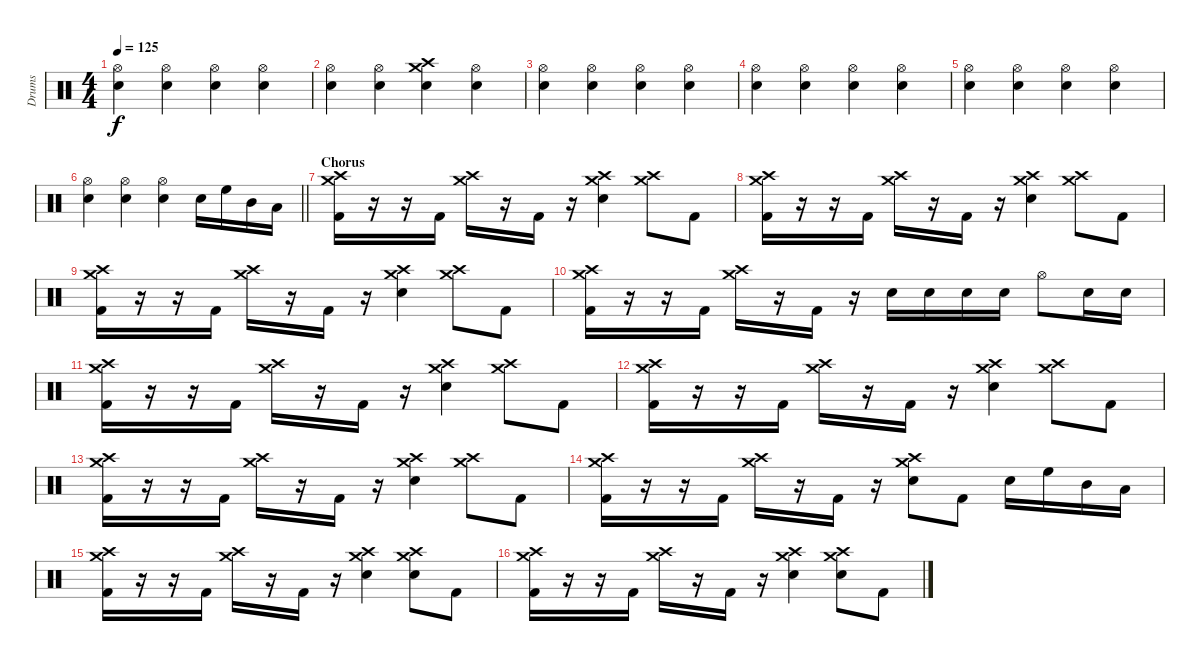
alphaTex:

\track ("Drums" "Drums") {instrument percussion}
\staff {score}
\articulation defaults
\ts (4 4)
\tempo 125
\clef neutral
\ks c
("Hi-Hat (open)" "Snare (hit) 2").4{dy f} ("Hi-Hat (open)" "Snare (hit) 2").4 ("Hi-Hat (open)" "Snare (hit) 2").4 ("Hi-Hat (open)" "Snare (hit) 2").4 |
("Hi-Hat (open)" "Snare (hit) 2").4 ("Hi-Hat (open)" "Snare (hit) 2").4 ("Crash medium (hit)" "Crash high (hit)" "Snare (hit) 2").4 ("Hi-Hat (open)" "Snare (hit) 2").4 |
("Hi-Hat (open)" "Snare (hit) 2").4 ("Hi-Hat (open)" "Snare (hit) 2").4 ("Hi-Hat (open)" "Snare (hit) 2").4 ("Hi-Hat (open)" "Snare (hit) 2").4 |
("Hi-Hat (open)" "Snare (hit) 2").4 ("Hi-Hat (open)" "Snare (hit) 2").4 ("Hi-Hat (open)" "Snare (hit) 2").4 ("Hi-Hat (open)" "Snare (hit) 2").4 |
("Hi-Hat (open)" "Snare (hit) 2").4 ("Hi-Hat (open)" "Snare (hit) 2").4 ("Hi-Hat (open)" "Snare (hit) 2").4 ("Hi-Hat (open)" "Snare (hit) 2").4 |
\barLineRight lightlight
("Hi-Hat (open)" "Snare (hit) 2").4 ("Hi-Hat (open)" "Snare (hit) 2").4 ("Hi-Hat (open)" "Snare (hit) 2").4 "Snare (hit) 2".16 "High Floor Tom (hit)".16 "Mid Tom (hit)".16 "Low Tom (hit)".16 |
\section ("" "Chorus")
("Crash high (hit)" "Crash medium (hit)" "Kick (hit) 2").16 r.16 r.16 "Kick (hit) 2".16 ("Crash high (hit)" "Crash medium (hit)").16 r.16 "Kick (hit) 2".16 r.16 ("Crash high (hit)" "Crash medium (hit)" "Snare (hit) 2").4 ("Crash high (hit)" "Crash medium (hit)").8 "Kick (hit) 2".8 |
("Crash high (hit)" "Crash medium (hit)" "Kick (hit) 2").16 r.16 r.16 "Kick (hit) 2".16 ("Crash high (hit)" "Crash medium (hit)").16 r.16 "Kick (hit) 2".16 r.16 ("Crash high (hit)" "Crash medium (hit)" "Snare (hit) 2").4 ("Crash high (hit)" "Crash medium (hit)").8 "Kick (hit) 2".8 |
("Crash high (hit)" "Crash medium (hit)" "Kick (hit) 2").16 r.16 r.16 "Kick (hit) 2".16 ("Crash high (hit)" "Crash medium (hit)").16 r.16 "Kick (hit) 2".16 r.16 ("Crash high (hit)" "Crash medium (hit)" "Snare (hit) 2").4 ("Crash high (hit)" "Crash medium (hit)").8 "Kick (hit) 2".8 |
("Crash high (hit)" "Crash medium (hit)" "Kick (hit) 2").16 r.16 r.16 "Kick (hit) 2".16 ("Crash high (hit)" "Crash medium (hit)").16 r.16 "Kick (hit) 2".16 r.16 "Snare (hit) 2".16 "Snare (hit) 2".16 "Snare (hit) 2".16 "Snare (hit) 2".16 "Hi-Hat (open)".8 "Snare (hit) 2".16 "Snare (hit) 2".16 |
("Crash high (hit)" "Crash medium (hit)" "Kick (hit) 2").16 r.16 r.16 "Kick (hit) 2".16 ("Crash high (hit)" "Crash medium (hit)").16 r.16 "Kick (hit) 2".16 r.16 ("Crash high (hit)" "Crash medium (hit)" "Snare (hit) 2").4 ("Crash high (hit)" "Crash medium (hit)").8 "Kick (hit) 2".8 |
("Crash high (hit)" "Crash medium (hit)" "Kick (hit) 2").16 r.16 r.16 "Kick (hit) 2".16 ("Crash high (hit)" "Crash medium (hit)").16 r.16 "Kick (hit) 2".16 r.16 ("Crash high (hit)" "Crash medium (hit)" "Snare (hit) 2").4 ("Crash high (hit)" "Crash medium (hit)").8 "Kick (hit) 2".8 |
("Crash high (hit)" "Crash medium (hit)" "Kick (hit) 2").16 r.16 r.16 "Kick (hit) 2".16 ("Crash high (hit)" "Crash medium (hit)").16 r.16 "Kick (hit) 2".16 r.16 ("Crash high (hit)" "Crash medium (hit)" "Snare (hit) 2").4 ("Crash high (hit)" "Crash medium (hit)").8 "Kick (hit) 2".8 |
("Crash high (hit)" "Crash medium (hit)" "Kick (hit) 2").16 r.16 r.16 "Kick (hit) 2".16 ("Crash high (hit)" "Crash medium (hit)").16 r.16 "Kick (hit) 2".16 r.16 ("Crash medium (hit)" "Crash high (hit)" "Snare (hit) 2").8 "Kick (hit) 2".8 "Snare (hit) 2".16 "High Floor Tom (hit)".16 "Mid Tom (hit)".16 "Low Tom (hit)".16 |
("Crash high (hit)" "Crash medium (hit)" "Kick (hit) 2").16 r.16 r.16 "Kick (hit) 2".16 ("Crash high (hit)" "Crash medium (hit)").16 r.16 "Kick (hit) 2".16 r.16 ("Crash high (hit)" "Crash medium (hit)" "Snare (hit) 2").4 ("Crash high (hit)" "Crash medium (hit)" "Snare (hit) 2").8 "Kick (hit) 2".8 |
("Crash high (hit)" "Crash medium (hit)" "Kick (hit) 2").16 r.16 r.16 "Kick (hit) 2".16 ("Crash high (hit)" "Crash medium (hit)").16 r.16 "Kick (hit) 2".16 r.16 ("Crash high (hit)" "Crash medium (hit)" "Snare (hit) 2").4 ("Crash high (hit)" "Crash medium (hit)" "Snare (hit) 2").8 "Kick (hit) 2".8
